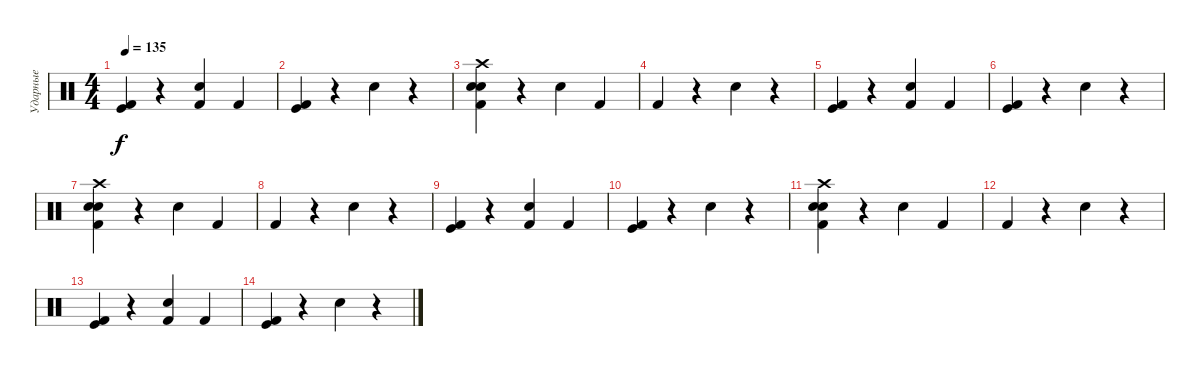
\track ("Ударные" "Ударные") {instrument percussion}
\staff {score}
\articulation defaults
\ts (4 4)
\tempo 135
\clef neutral
\ks c
("Kick (hit) 2" "Kick (hit)").4{dy f} r.4 ("Electric Snare (hit)" "Kick (hit) 2").4 "Kick (hit) 2".4 |
("Kick (hit) 2" "Kick (hit)").4 r.4 "Electric Snare (hit)".4 r.4 |
("Electric Snare (hit)" "Kick (hit) 2" "Snare (hit) 2" "Crash high (hit)").4 r.4 "Electric Snare (hit)".4 "Kick (hit) 2".4 |
"Kick (hit) 2".4 r.4 "Electric Snare (hit)".4 r.4 |
("Kick (hit) 2" "Kick (hit)").4 r.4 ("Electric Snare (hit)" "Kick (hit) 2").4 "Kick (hit) 2".4 |
("Kick (hit) 2" "Kick (hit)").4 r.4 "Electric Snare (hit)".4 r.4 |
("Electric Snare (hit)" "Kick (hit) 2" "Snare (hit) 2" "Crash high (hit)").4 r.4 "Electric Snare (hit)".4 "Kick (hit) 2".4 |
"Kick (hit) 2".4 r.4 "Electric Snare (hit)".4 r.4 |
("Kick (hit) 2" "Kick (hit)").4 r.4 ("Electric Snare (hit)" "Kick (hit) 2").4 "Kick (hit) 2".4 |
("Kick (hit) 2" "Kick (hit)").4 r.4 "Electric Snare (hit)".4 r.4 |
("Electric Snare (hit)" "Kick (hit) 2" "Snare (hit) 2" "Crash high (hit)").4 r.4 "Electric Snare (hit)".4 "Kick (hit) 2".4 |
"Kick (hit) 2".4 r.4 "Electric Snare (hit)".4 r.4 |
("Kick (hit) 2" "Kick (hit)").4 r.4 ("Electric Snare (hit)" "Kick (hit) 2").4 "Kick (hit) 2".4 |
("Kick (hit) 2" "Kick (hit)").4 r.4 "Electric Snare (hit)".4 r.4
